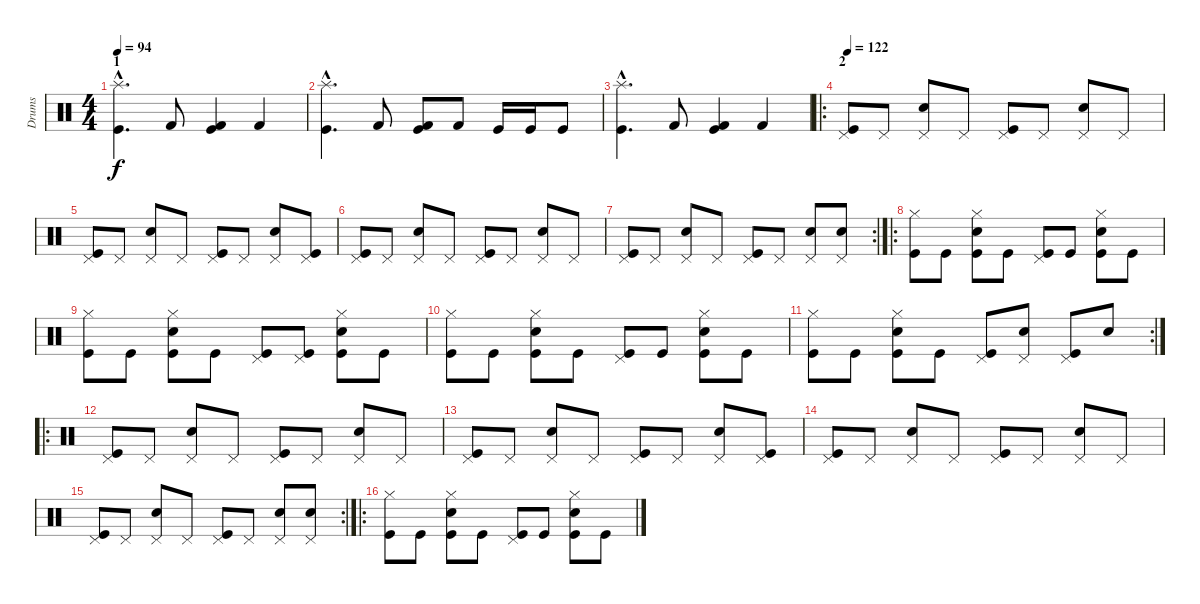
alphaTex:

\track ("Drums" "Drums") {instrument percussion}
\staff {score}
\articulation defaults
\ts (4 4)
\section ("" "1")
\tempo 94
\clef neutral
\ks c
("Kick (hit)"{hac} "Splash (hit)"{hac}).4{d dy f} "Kick (hit) 2".8 ("Kick (hit) 2" "Kick (hit)").4 "Kick (hit) 2".4 |
("Kick (hit)"{hac} "Splash (hit)"{hac}).4{d} "Kick (hit) 2".8 ("Kick (hit) 2" "Kick (hit)").8 "Kick (hit) 2".8 "Kick (hit)".16 "Kick (hit)".16 "Kick (hit)".8 |
("Kick (hit)"{hac} "Splash (hit)"{hac}).4{d} "Kick (hit) 2".8 ("Kick (hit) 2" "Kick (hit)").4 "Kick (hit) 2".4 |
\ro
\section ("" "2")
\tempo 122
("Pedal Hi-Hat (hit)" "Kick (hit)").8 "Pedal Hi-Hat (hit)".8 ("Pedal Hi-Hat (hit)" "Electric Snare (hit)").8 "Pedal Hi-Hat (hit)".8 ("Pedal Hi-Hat (hit)" "Kick (hit)").8 "Pedal Hi-Hat (hit)".8 ("Pedal Hi-Hat (hit)" "Electric Snare (hit)").8 "Pedal Hi-Hat (hit)".8 |
("Pedal Hi-Hat (hit)" "Kick (hit)").8 "Pedal Hi-Hat (hit)".8 ("Pedal Hi-Hat (hit)" "Electric Snare (hit)").8 "Pedal Hi-Hat (hit)".8 ("Pedal Hi-Hat (hit)" "Kick (hit)").8 "Pedal Hi-Hat (hit)".8 ("Pedal Hi-Hat (hit)" "Electric Snare (hit)").8 ("Pedal Hi-Hat (hit)" "Kick (hit)").8 |
("Pedal Hi-Hat (hit)" "Kick (hit)").8 "Pedal Hi-Hat (hit)".8 ("Pedal Hi-Hat (hit)" "Electric Snare (hit)").8 "Pedal Hi-Hat (hit)".8 ("Pedal Hi-Hat (hit)" "Kick (hit)").8 "Pedal Hi-Hat (hit)".8 ("Pedal Hi-Hat (hit)" "Electric Snare (hit)").8 "Pedal Hi-Hat (hit)".8 |
\rc 2
("Pedal Hi-Hat (hit)" "Kick (hit)").8 "Pedal Hi-Hat (hit)".8 ("Pedal Hi-Hat (hit)" "Electric Snare (hit)").8 "Pedal Hi-Hat (hit)".8 ("Pedal Hi-Hat (hit)" "Kick (hit)").8 "Pedal Hi-Hat (hit)".8 ("Pedal Hi-Hat (hit)" "Electric Snare (hit)").8 ("Pedal Hi-Hat (hit)" "Electric Snare (hit)").8 |
\ro
("Hi-Hat (closed)" "Kick (hit)").8 "Kick (hit)".8 ("Hi-Hat (closed)" "Electric Snare (hit)" "Kick (hit)").8 "Kick (hit)".8 ("Pedal Hi-Hat (hit)" "Kick (hit)").8 "Kick (hit)".8 ("Hi-Hat (closed)" "Electric Snare (hit)" "Kick (hit)").8 "Kick (hit)".8 |
("Hi-Hat (closed)" "Kick (hit)").8 "Kick (hit)".8 ("Hi-Hat (closed)" "Electric Snare (hit)" "Kick (hit)").8 "Kick (hit)".8 ("Pedal Hi-Hat (hit)" "Kick (hit)").8 ("Pedal Hi-Hat (hit)" "Kick (hit)").8 ("Hi-Hat (closed)" "Electric Snare (hit)" "Kick (hit)").8 "Kick (hit)".8 |
("Hi-Hat (closed)" "Kick (hit)").8 "Kick (hit)".8 ("Hi-Hat (closed)" "Electric Snare (hit)" "Kick (hit)").8 "Kick (hit)".8 ("Pedal Hi-Hat (hit)" "Kick (hit)").8 "Kick (hit)".8 ("Hi-Hat (closed)" "Electric Snare (hit)" "Kick (hit)").8 "Kick (hit)".8 |
\rc 2
("Hi-Hat (closed)" "Kick (hit)").8 "Kick (hit)".8 ("Hi-Hat (closed)" "Electric Snare (hit)" "Kick (hit)").8 "Kick (hit)".8 ("Pedal Hi-Hat (hit)" "Kick (hit)").8 ("Pedal Hi-Hat (hit)" "Electric Snare (hit)").8 ("Pedal Hi-Hat (hit)" "Kick (hit)").8 "Electric Snare (hit)".8 |
\ro
("Pedal Hi-Hat (hit)" "Kick (hit)").8 "Pedal Hi-Hat (hit)".8 ("Pedal Hi-Hat (hit)" "Electric Snare (hit)").8 "Pedal Hi-Hat (hit)".8 ("Pedal Hi-Hat (hit)" "Kick (hit)").8 "Pedal Hi-Hat (hit)".8 ("Pedal Hi-Hat (hit)" "Electric Snare (hit)").8 "Pedal Hi-Hat (hit)".8 |
("Pedal Hi-Hat (hit)" "Kick (hit)").8 "Pedal Hi-Hat (hit)".8 ("Pedal Hi-Hat (hit)" "Electric Snare (hit)").8 "Pedal Hi-Hat (hit)".8 ("Pedal Hi-Hat (hit)" "Kick (hit)").8 "Pedal Hi-Hat (hit)".8 ("Pedal Hi-Hat (hit)" "Electric Snare (hit)").8 ("Pedal Hi-Hat (hit)" "Kick (hit)").8 |
("Pedal Hi-Hat (hit)" "Kick (hit)").8 "Pedal Hi-Hat (hit)".8 ("Pedal Hi-Hat (hit)" "Electric Snare (hit)").8 "Pedal Hi-Hat (hit)".8 ("Pedal Hi-Hat (hit)" "Kick (hit)").8 "Pedal Hi-Hat (hit)".8 ("Pedal Hi-Hat (hit)" "Electric Snare (hit)").8 "Pedal Hi-Hat (hit)".8 |
\rc 2
("Pedal Hi-Hat (hit)" "Kick (hit)").8 "Pedal Hi-Hat (hit)".8 ("Pedal Hi-Hat (hit)" "Electric Snare (hit)").8 "Pedal Hi-Hat (hit)".8 ("Pedal Hi-Hat (hit)" "Kick (hit)").8 "Pedal Hi-Hat (hit)".8 ("Pedal Hi-Hat (hit)" "Electric Snare (hit)").8 ("Pedal Hi-Hat (hit)" "Electric Snare (hit)").8 |
\ro
("Hi-Hat (closed)" "Kick (hit)").8 "Kick (hit)".8 ("Hi-Hat (closed)" "Electric Snare (hit)" "Kick (hit)").8 "Kick (hit)".8 ("Pedal Hi-Hat (hit)" "Kick (hit)").8 "Kick (hit)".8 ("Hi-Hat (closed)" "Electric Snare (hit)" "Kick (hit)").8 "Kick (hit)".8
